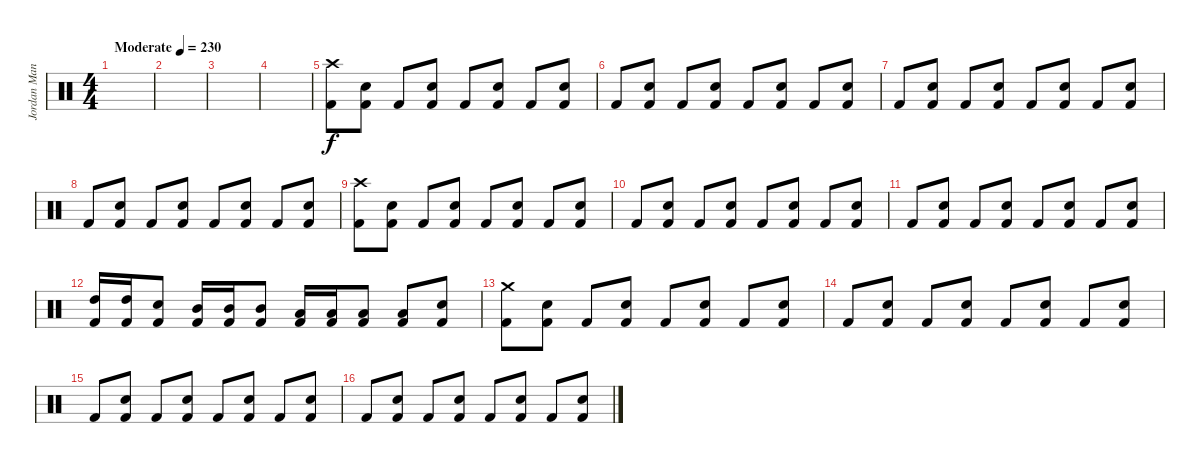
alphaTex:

\track ("Jordan Mancino" "Jordan Man") {instrument percussion}
\staff {score}
\articulation defaults
\ts (4 4)
\tempo (230 "Moderate")
\clef neutral
\ks c
|
|
|
|
("Crash high (hit)" "Kick (hit) 2").8 ("Snare (hit) 2" "Kick (hit) 2").8 "Kick (hit) 2".8 ("Snare (hit) 2" "Kick (hit) 2").8 "Kick (hit) 2".8 ("Snare (hit) 2" "Kick (hit) 2").8 "Kick (hit) 2".8 ("Snare (hit) 2" "Kick (hit) 2").8 |
"Kick (hit) 2".8 ("Snare (hit) 2" "Kick (hit) 2").8 "Kick (hit) 2".8 ("Snare (hit) 2" "Kick (hit) 2").8 "Kick (hit) 2".8 ("Snare (hit) 2" "Kick (hit) 2").8 "Kick (hit) 2".8 ("Snare (hit) 2" "Kick (hit) 2").8 |
"Kick (hit) 2".8 ("Snare (hit) 2" "Kick (hit) 2").8 "Kick (hit) 2".8 ("Snare (hit) 2" "Kick (hit) 2").8 "Kick (hit) 2".8 ("Snare (hit) 2" "Kick (hit) 2").8 "Kick (hit) 2".8 ("Snare (hit) 2" "Kick (hit) 2").8 |
"Kick (hit) 2".8 ("Snare (hit) 2" "Kick (hit) 2").8 "Kick (hit) 2".8 ("Snare (hit) 2" "Kick (hit) 2").8 "Kick (hit) 2".8 ("Snare (hit) 2" "Kick (hit) 2").8 "Kick (hit) 2".8 ("Snare (hit) 2" "Kick (hit) 2").8 |
("Crash high (hit)" "Kick (hit) 2").8 ("Snare (hit) 2" "Kick (hit) 2").8 "Kick (hit) 2".8 ("Snare (hit) 2" "Kick (hit) 2").8 "Kick (hit) 2".8 ("Snare (hit) 2" "Kick (hit) 2").8 "Kick (hit) 2".8 ("Snare (hit) 2" "Kick (hit) 2").8 |
"Kick (hit) 2".8 ("Snare (hit) 2" "Kick (hit) 2").8 "Kick (hit) 2".8 ("Snare (hit) 2" "Kick (hit) 2").8 "Kick (hit) 2".8 ("Snare (hit) 2" "Kick (hit) 2").8 "Kick (hit) 2".8 ("Snare (hit) 2" "Kick (hit) 2").8 |
"Kick (hit) 2".8 ("Snare (hit) 2" "Kick (hit) 2").8 "Kick (hit) 2".8 ("Snare (hit) 2" "Kick (hit) 2").8 "Kick (hit) 2".8 ("Snare (hit) 2" "Kick (hit) 2").8 "Kick (hit) 2".8 ("Snare (hit) 2" "Kick (hit) 2").8 |
("High Tom (hit)" "Kick (hit) 2").16 ("High Tom (hit)" "Kick (hit) 2").16 ("Snare (hit) 2" "Kick (hit) 2").8 ("Mid Tom (hit)" "Kick (hit) 2").16 ("Mid Tom (hit)" "Kick (hit) 2").16 ("Mid Tom (hit)" "Kick (hit) 2").8 ("Low Tom (hit)" "Kick (hit) 2").16 ("Low Tom (hit)" "Kick (hit) 2").16 ("Low Tom (hit)" "Kick (hit) 2").8 ("Low Tom (hit)" "Kick (hit) 2").8 ("Snare (hit) 2" "Kick (hit) 2").8 |
("Crash medium (hit)" "Kick (hit) 2").8 ("Snare (hit) 2" "Kick (hit) 2").8 "Kick (hit) 2".8 ("Snare (hit) 2" "Kick (hit) 2").8 "Kick (hit) 2".8 ("Snare (hit) 2" "Kick (hit) 2").8 "Kick (hit) 2".8 ("Snare (hit) 2" "Kick (hit) 2").8 |
"Kick (hit) 2".8 ("Snare (hit) 2" "Kick (hit) 2").8 "Kick (hit) 2".8 ("Snare (hit) 2" "Kick (hit) 2").8 "Kick (hit) 2".8 ("Snare (hit) 2" "Kick (hit) 2").8 "Kick (hit) 2".8 ("Snare (hit) 2" "Kick (hit) 2").8 |
"Kick (hit) 2".8 ("Snare (hit) 2" "Kick (hit) 2").8 "Kick (hit) 2".8 ("Snare (hit) 2" "Kick (hit) 2").8 "Kick (hit) 2".8 ("Snare (hit) 2" "Kick (hit) 2").8 "Kick (hit) 2".8 ("Snare (hit) 2" "Kick (hit) 2").8 |
"Kick (hit) 2".8 ("Snare (hit) 2" "Kick (hit) 2").8 "Kick (hit) 2".8 ("Snare (hit) 2" "Kick (hit) 2").8 "Kick (hit) 2".8 ("Snare (hit) 2" "Kick (hit) 2").8 "Kick (hit) 2".8 ("Snare (hit) 2" "Kick (hit) 2").8
